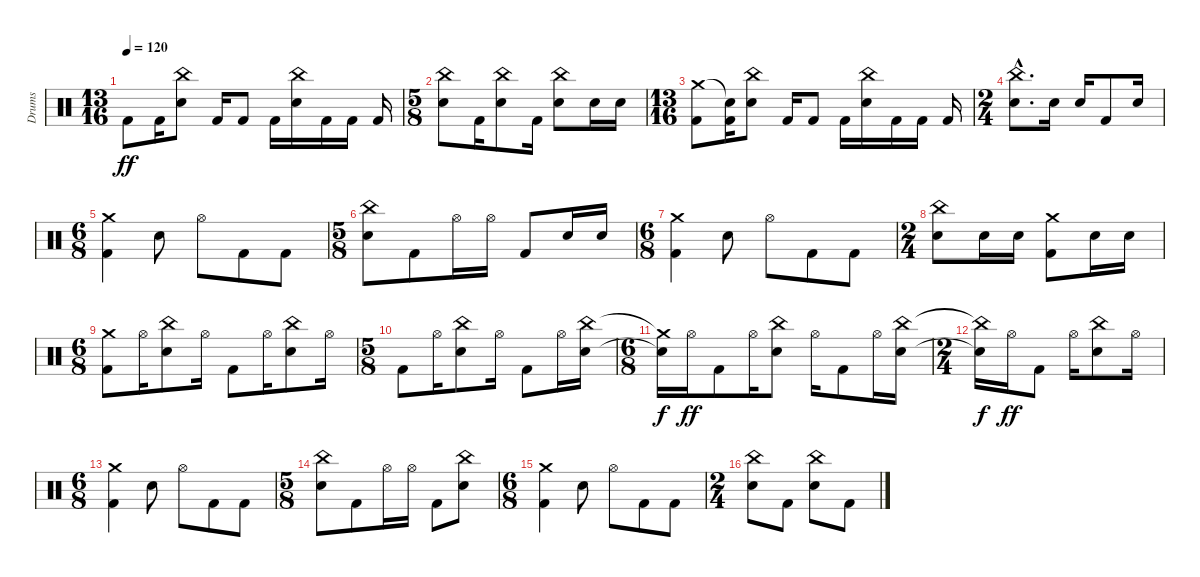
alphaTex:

\track ("Drums" "Drums") {instrument percussion}
\staff {score}
\articulation defaults
\ts (13 16)
\tempo 120
\clef neutral
\ks c "Kick (hit) 2".8{dy ff} "Kick (hit) 2".16
("China (hit)" "Snare (hit) 2").8 "Kick (hit) 2".16 "Kick (hit) 2".8 "Kick (hit) 2".16 ("China (hit)" "Snare (hit) 2").16 "Kick (hit) 2".16 "Kick (hit) 2".16 "Kick (hit) 2".16 |
\ts (5 8)
("China (hit)" "Snare (hit) 2").8 "Kick (hit) 2".16 ("China (hit)" "Snare (hit) 2").8 "Kick (hit) 2".16 ("China (hit)" "Snare (hit) 2").8 "Snare (hit) 2".16 "Snare (hit) 2".16 |
\ts (13 16)
("Crash medium (hit)" "Kick (hit) 2").8 ("Snare (hit)"{t} "Kick (hit) 2").16 ("China (hit)" "Snare (hit) 2").8 "Kick (hit) 2".16 "Kick (hit) 2".8 "Kick (hit) 2".16 ("China (hit)" "Snare (hit) 2").16 "Kick (hit) 2".16 "Kick (hit) 2".16 "Kick (hit) 2".16 |
\ts (2 4)
("China (hit)"{hac} "Snare (hit) 2"{hac}).8{d} "Snare (hit) 2".16 "Snare (hit) 2".16 "Kick (hit) 2".8 "Snare (hit) 2".16 |
\ts (6 8)
("Crash medium (hit)" "Kick (hit) 2").4 "Snare (hit) 2".8 "Hi-Hat (open)".8 "Kick (hit) 2".8 "Kick (hit) 2".8 |
\ts (5 8)
("China (hit)" "Snare (hit) 2").8 "Kick (hit) 2".8 "Hi-Hat (open)".16 "Hi-Hat (open)".16 "Kick (hit) 2".8 "Snare (hit) 2".16 "Snare (hit) 2".16 |
\ts (6 8)
("Crash medium (hit)" "Kick (hit) 2").4 "Snare (hit) 2".8 "Hi-Hat (open)".8 "Kick (hit) 2".8 "Kick (hit) 2".8 |
\ts (2 4)
("China (hit)" "Snare (hit) 2").8 "Snare (hit) 2".16 "Snare (hit) 2".16 ("Crash medium (hit)" "Kick (hit) 2").8 "Snare (hit) 2".16 "Snare (hit) 2".16 |
\ts (6 8)
("Crash medium (hit)" "Kick (hit) 2").8 "Hi-Hat (open)".16 ("China (hit)" "Snare (hit) 2").8 "Hi-Hat (open)".16 "Kick (hit) 2".8 "Hi-Hat (open)".16 ("China (hit)" "Snare (hit) 2").8 "Hi-Hat (open)".16 |
\ts (5 8)
"Kick (hit) 2".8 "Hi-Hat (open)".16 ("China (hit)" "Snare (hit) 2").8 "Hi-Hat (open)".16 "Kick (hit) 2".8 "Hi-Hat (open)".16 ("China (hit)" "Snare (hit) 2").16 |
\ts (6 8)
("Crash medium (hit)"{t} "Snare (hit)"{t}).16{dy f} "Hi-Hat (open)".16{dy ff} "Kick (hit) 2".8 "Hi-Hat (open)".16 ("China (hit)" "Snare (hit) 2").8 "Hi-Hat (open)".16 "Kick (hit) 2".8 "Hi-Hat (open)".16 ("China (hit)" "Snare (hit) 2").16 |
\ts (2 4)
("China (hit)"{t} "Snare (hit) 2"{t}).16{dy f} "Hi-Hat (open)".16{dy ff} "Kick (hit) 2".8 "Hi-Hat (open)".16 ("China (hit)" "Snare (hit) 2").8 "Hi-Hat (open)".16 |
\ts (6 8)
("Crash medium (hit)" "Kick (hit) 2").4 "Snare (hit) 2".8 "Hi-Hat (open)".8 "Kick (hit) 2".8 "Kick (hit) 2".8 |
\ts (5 8)
("China (hit)" "Snare (hit) 2").8 "Kick (hit) 2".8 "Hi-Hat (open)".16 "Hi-Hat (open)".16 "Kick (hit) 2".8 ("China (hit)" "Snare (hit) 2").8 |
\ts (6 8)
("Crash medium (hit)" "Kick (hit) 2").4 "Snare (hit) 2".8 "Hi-Hat (open)".8 "Kick (hit) 2".8 "Kick (hit) 2".8 |
\ts (2 4)
("China (hit)" "Snare (hit) 2").8 "Kick (hit) 2".8 ("China (hit)" "Snare (hit) 2").8 "Kick (hit) 2".8
